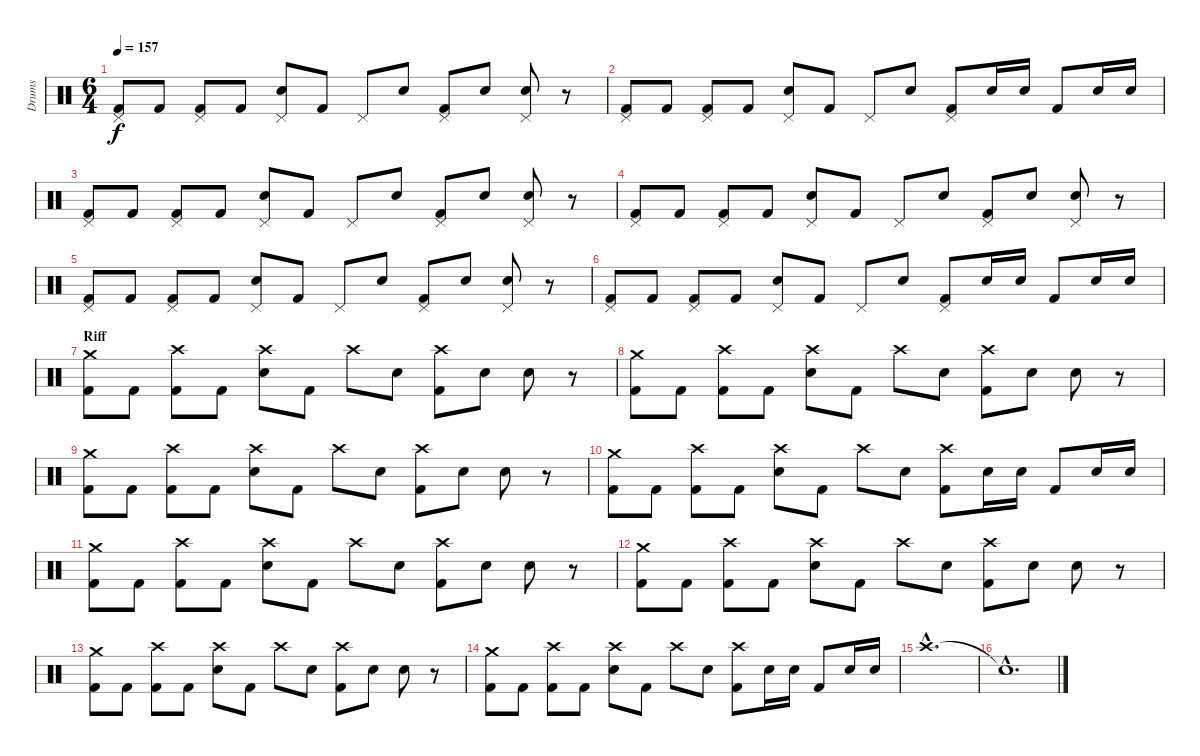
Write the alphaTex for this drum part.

\track ("Drums" "Drums") {instrument percussion}
\staff {score}
\articulation defaults
\ts (6 4)
\tempo 157
\clef neutral
\ks c
("Pedal Hi-Hat (hit)" "Kick (hit) 2").8{dy f} "Kick (hit) 2".8 ("Pedal Hi-Hat (hit)" "Kick (hit) 2").8 "Kick (hit) 2".8 ("Pedal Hi-Hat (hit)" "Electric Snare (hit)").8 "Kick (hit) 2".8 "Pedal Hi-Hat (hit)".8 "Electric Snare (hit)".8 ("Pedal Hi-Hat (hit)" "Kick (hit) 2").8 "Electric Snare (hit)".8 ("Pedal Hi-Hat (hit)" "Electric Snare (hit)").8 r.8 |
("Pedal Hi-Hat (hit)" "Kick (hit) 2").8 "Kick (hit) 2".8 ("Pedal Hi-Hat (hit)" "Kick (hit) 2").8 "Kick (hit) 2".8 ("Pedal Hi-Hat (hit)" "Electric Snare (hit)").8 "Kick (hit) 2".8 "Pedal Hi-Hat (hit)".8 "Electric Snare (hit)".8 ("Pedal Hi-Hat (hit)" "Kick (hit) 2").8 "Electric Snare (hit)".16 "Electric Snare (hit)".16 "Kick (hit) 2".8 "Electric Snare (hit)".16 "Electric Snare (hit)".16 |
("Pedal Hi-Hat (hit)" "Kick (hit) 2").8 "Kick (hit) 2".8 ("Pedal Hi-Hat (hit)" "Kick (hit) 2").8 "Kick (hit) 2".8 ("Pedal Hi-Hat (hit)" "Electric Snare (hit)").8 "Kick (hit) 2".8 "Pedal Hi-Hat (hit)".8 "Electric Snare (hit)".8 ("Pedal Hi-Hat (hit)" "Kick (hit) 2").8 "Electric Snare (hit)".8 ("Pedal Hi-Hat (hit)" "Electric Snare (hit)").8 r.8 |
("Pedal Hi-Hat (hit)" "Kick (hit) 2").8 "Kick (hit) 2".8 ("Pedal Hi-Hat (hit)" "Kick (hit) 2").8 "Kick (hit) 2".8 ("Pedal Hi-Hat (hit)" "Electric Snare (hit)").8 "Kick (hit) 2".8 "Pedal Hi-Hat (hit)".8 "Electric Snare (hit)".8 ("Pedal Hi-Hat (hit)" "Kick (hit) 2").8 "Electric Snare (hit)".8 ("Pedal Hi-Hat (hit)" "Electric Snare (hit)").8 r.8 |
("Pedal Hi-Hat (hit)" "Kick (hit) 2").8 "Kick (hit) 2".8 ("Pedal Hi-Hat (hit)" "Kick (hit) 2").8 "Kick (hit) 2".8 ("Pedal Hi-Hat (hit)" "Electric Snare (hit)").8 "Kick (hit) 2".8 "Pedal Hi-Hat (hit)".8 "Electric Snare (hit)".8 ("Pedal Hi-Hat (hit)" "Kick (hit) 2").8 "Electric Snare (hit)".8 ("Pedal Hi-Hat (hit)" "Electric Snare (hit)").8 r.8 |
("Pedal Hi-Hat (hit)" "Kick (hit) 2").8 "Kick (hit) 2".8 ("Pedal Hi-Hat (hit)" "Kick (hit) 2").8 "Kick (hit) 2".8 ("Pedal Hi-Hat (hit)" "Electric Snare (hit)").8 "Kick (hit) 2".8 "Pedal Hi-Hat (hit)".8 "Electric Snare (hit)".8 ("Pedal Hi-Hat (hit)" "Kick (hit) 2").8 "Electric Snare (hit)".16 "Electric Snare (hit)".16 "Kick (hit) 2".8 "Electric Snare (hit)".16 "Electric Snare (hit)".16 |
\section ("" "Riff")
("Crash medium (hit)" "Kick (hit) 2").8 "Kick (hit) 2".8 ("Crash high (hit)" "Kick (hit) 2").8 "Kick (hit) 2".8 ("Crash high (hit)" "Electric Snare (hit)").8 "Kick (hit) 2".8 "Crash high (hit)".8 "Electric Snare (hit)".8 ("Crash high (hit)" "Kick (hit) 2").8 "Electric Snare (hit)".8 "Electric Snare (hit)".8 r.8 |
("Crash medium (hit)" "Kick (hit) 2").8 "Kick (hit) 2".8 ("Crash high (hit)" "Kick (hit) 2").8 "Kick (hit) 2".8 ("Crash high (hit)" "Electric Snare (hit)").8 "Kick (hit) 2".8 "Crash high (hit)".8 "Electric Snare (hit)".8 ("Crash high (hit)" "Kick (hit) 2").8 "Electric Snare (hit)".8 "Electric Snare (hit)".8 r.8 |
("Crash medium (hit)" "Kick (hit) 2").8 "Kick (hit) 2".8 ("Crash high (hit)" "Kick (hit) 2").8 "Kick (hit) 2".8 ("Crash high (hit)" "Electric Snare (hit)").8 "Kick (hit) 2".8 "Crash high (hit)".8 "Electric Snare (hit)".8 ("Crash high (hit)" "Kick (hit) 2").8 "Electric Snare (hit)".8 "Electric Snare (hit)".8 r.8 |
("Crash medium (hit)" "Kick (hit) 2").8 "Kick (hit) 2".8 ("Crash high (hit)" "Kick (hit) 2").8 "Kick (hit) 2".8 ("Crash high (hit)" "Electric Snare (hit)").8 "Kick (hit) 2".8 "Crash high (hit)".8 "Electric Snare (hit)".8 ("Crash high (hit)" "Kick (hit) 2").8 "Electric Snare (hit)".16 "Electric Snare (hit)".16 "Kick (hit) 2".8 "Electric Snare (hit)".16 "Electric Snare (hit)".16 |
("Crash medium (hit)" "Kick (hit) 2").8 "Kick (hit) 2".8 ("Crash high (hit)" "Kick (hit) 2").8 "Kick (hit) 2".8 ("Crash high (hit)" "Electric Snare (hit)").8 "Kick (hit) 2".8 "Crash high (hit)".8 "Electric Snare (hit)".8 ("Crash high (hit)" "Kick (hit) 2").8 "Electric Snare (hit)".8 "Electric Snare (hit)".8 r.8 |
("Crash medium (hit)" "Kick (hit) 2").8 "Kick (hit) 2".8 ("Crash high (hit)" "Kick (hit) 2").8 "Kick (hit) 2".8 ("Crash high (hit)" "Electric Snare (hit)").8 "Kick (hit) 2".8 "Crash high (hit)".8 "Electric Snare (hit)".8 ("Crash high (hit)" "Kick (hit) 2").8 "Electric Snare (hit)".8 "Electric Snare (hit)".8 r.8 |
("Crash medium (hit)" "Kick (hit) 2").8 "Kick (hit) 2".8 ("Crash high (hit)" "Kick (hit) 2").8 "Kick (hit) 2".8 ("Crash high (hit)" "Electric Snare (hit)").8 "Kick (hit) 2".8 "Crash high (hit)".8 "Electric Snare (hit)".8 ("Crash high (hit)" "Kick (hit) 2").8 "Electric Snare (hit)".8 "Electric Snare (hit)".8 r.8 |
("Crash medium (hit)" "Kick (hit) 2").8 "Kick (hit) 2".8 ("Crash high (hit)" "Kick (hit) 2").8 "Kick (hit) 2".8 ("Crash high (hit)" "Electric Snare (hit)").8 "Kick (hit) 2".8 "Crash high (hit)".8 "Electric Snare (hit)".8 ("Crash high (hit)" "Kick (hit) 2").8 "Electric Snare (hit)".16 "Electric Snare (hit)".16 "Kick (hit) 2".8 "Electric Snare (hit)".16 "Electric Snare (hit)".16 |
"Crash high (hit)"{hac}.1{d} |
"Snare (hit)"{hac t}.1{d}
